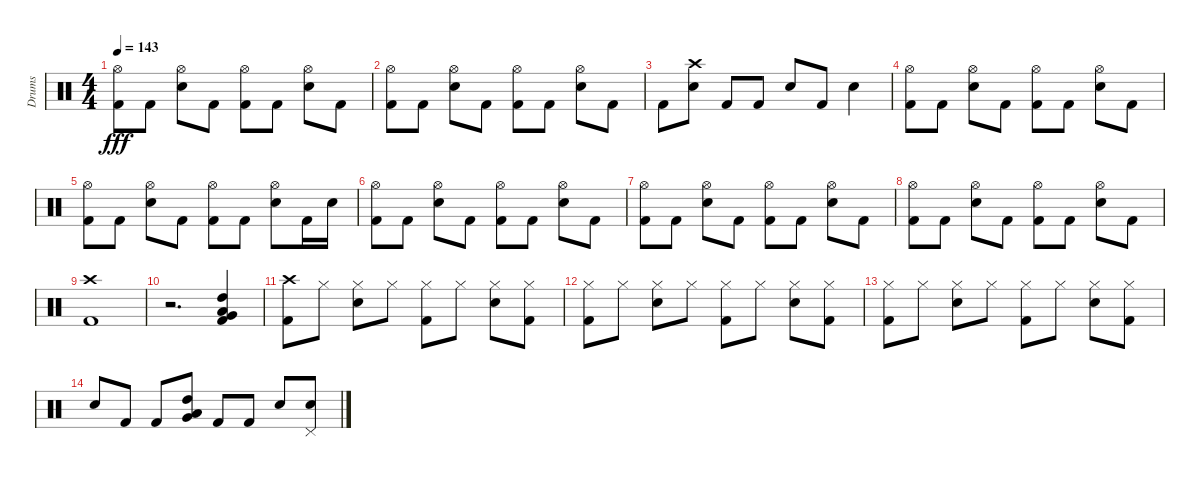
\track ("Drums" "Drums") {instrument percussion}
\staff {score}
\articulation defaults
\ts (4 4)
\tempo 143
\clef neutral
\ks c
("Hi-Hat (open)" "Kick (hit) 2").8{dy fff} "Kick (hit) 2".8 ("Snare (hit) 2" "Hi-Hat (open)").8 "Kick (hit) 2".8 ("Hi-Hat (open)" "Kick (hit) 2").8 "Kick (hit) 2".8 ("Hi-Hat (open)" "Snare (hit) 2").8 "Kick (hit) 2".8 |
("Hi-Hat (open)" "Kick (hit) 2").8 "Kick (hit) 2".8 ("Snare (hit) 2" "Hi-Hat (open)").8 "Kick (hit) 2".8 ("Hi-Hat (open)" "Kick (hit) 2").8 "Kick (hit) 2".8 ("Hi-Hat (open)" "Snare (hit) 2").8 "Kick (hit) 2".8 |
"Kick (hit) 2".8 ("Crash high (hit)" "Snare (hit) 2").8 "Kick (hit) 2".8 "Kick (hit) 2".8 "Snare (hit) 2".8 "Kick (hit) 2".8 "Snare (hit) 2".4 |
("Hi-Hat (open)" "Kick (hit) 2").8 "Kick (hit) 2".8 ("Snare (hit) 2" "Hi-Hat (open)").8 "Kick (hit) 2".8 ("Hi-Hat (open)" "Kick (hit) 2").8 "Kick (hit) 2".8 ("Hi-Hat (open)" "Snare (hit) 2").8 "Kick (hit) 2".8 |
("Hi-Hat (open)" "Kick (hit) 2").8 "Kick (hit) 2".8 ("Snare (hit) 2" "Hi-Hat (open)").8 "Kick (hit) 2".8 ("Hi-Hat (open)" "Kick (hit) 2").8 "Kick (hit) 2".8 ("Hi-Hat (open)" "Snare (hit) 2").8 "Kick (hit) 2".16 "Snare (hit) 2".16 |
("Hi-Hat (open)" "Kick (hit) 2").8 "Kick (hit) 2".8 ("Snare (hit) 2" "Hi-Hat (open)").8 "Kick (hit) 2".8 ("Hi-Hat (open)" "Kick (hit) 2").8 "Kick (hit) 2".8 ("Hi-Hat (open)" "Snare (hit) 2").8 "Kick (hit) 2".8 |
("Hi-Hat (open)" "Kick (hit) 2").8 "Kick (hit) 2".8 ("Snare (hit) 2" "Hi-Hat (open)").8 "Kick (hit) 2".8 ("Hi-Hat (open)" "Kick (hit) 2").8 "Kick (hit) 2".8 ("Hi-Hat (open)" "Snare (hit) 2").8 "Kick (hit) 2".8 |
("Hi-Hat (open)" "Kick (hit) 2").8 "Kick (hit) 2".8 ("Snare (hit) 2" "Hi-Hat (open)").8 "Kick (hit) 2".8 ("Hi-Hat (open)" "Kick (hit) 2").8 "Kick (hit) 2".8 ("Hi-Hat (open)" "Snare (hit) 2").8 "Kick (hit) 2".8 |
("Kick (hit) 2" "Crash high (hit)").1 |
r.2{d} ("Kick (hit) 2" "Very Low Tom (hit)" "High Tom (hit)" "Low Tom (hit)").4 |
("Crash high (hit)" "Kick (hit) 2").8 "Hi-Hat (closed)".8 ("Snare (hit) 2" "Hi-Hat (closed)").8 "Hi-Hat (closed)".8 ("Kick (hit) 2" "Hi-Hat (closed)").8 "Hi-Hat (closed)".8 ("Snare (hit) 2" "Hi-Hat (closed)").8 ("Kick (hit) 2" "Hi-Hat (closed)").8 |
("Kick (hit) 2" "Hi-Hat (closed)").8 "Hi-Hat (closed)".8 ("Snare (hit) 2" "Hi-Hat (closed)").8 "Hi-Hat (closed)".8 ("Kick (hit) 2" "Hi-Hat (closed)").8 "Hi-Hat (closed)".8 ("Snare (hit) 2" "Hi-Hat (closed)").8 ("Kick (hit) 2" "Hi-Hat (closed)").8 |
("Kick (hit) 2" "Hi-Hat (closed)").8 "Hi-Hat (closed)".8 ("Snare (hit) 2" "Hi-Hat (closed)").8 "Hi-Hat (closed)".8 ("Kick (hit) 2" "Hi-Hat (closed)").8 "Hi-Hat (closed)".8 ("Snare (hit) 2" "Hi-Hat (closed)").8 ("Kick (hit) 2" "Hi-Hat (closed)").8 |
"Snare (hit) 2".8 "Kick (hit) 2".8 "Kick (hit) 2".8 ("High Tom (hit)" "Very Low Tom (hit)" "Low Tom (hit)").8 "Kick (hit) 2".8 "Kick (hit) 2".8 "Snare (hit) 2".8 ("Snare (hit) 2" "Pedal Hi-Hat (hit)").8
